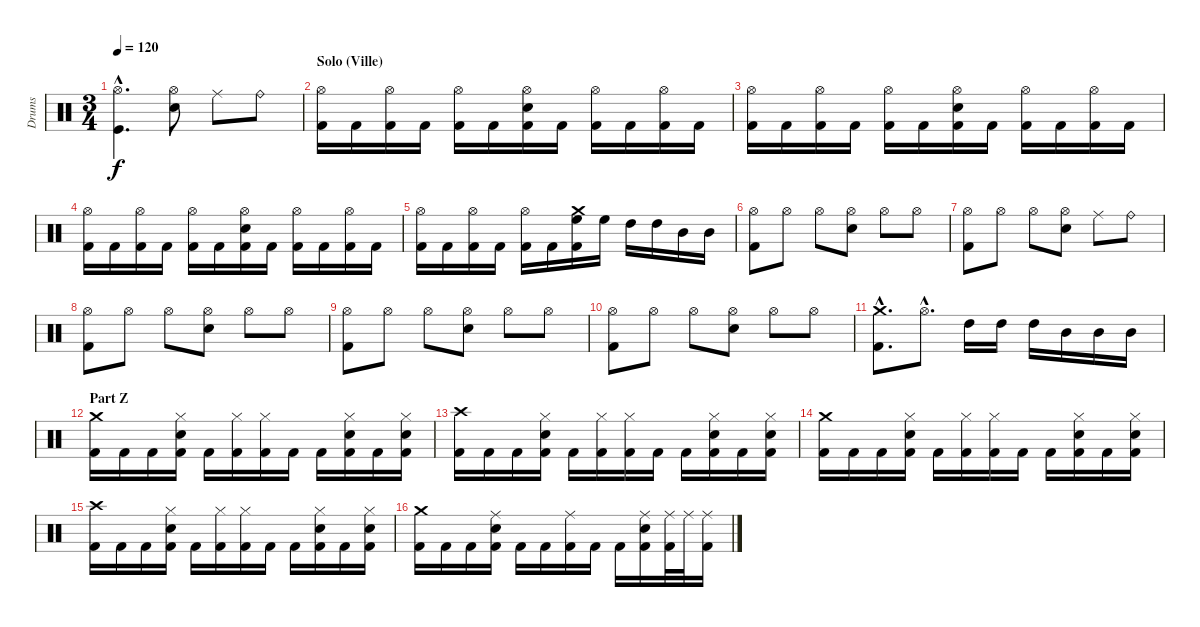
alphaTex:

\track ("Drums" "Drums") {instrument percussion}
\staff {score}
\articulation defaults
\ts (3 4)
\tempo 120
\clef neutral
\ks c
("Hi-Hat (open)"{hac} "Kick (hit)"{hac}).4{d dy f} ("Hi-Hat (open)" "Electric Snare (hit)").8 "Ride (middle)".8 "Ride (bell)".8 |
\section ("" "Solo (Ville)")
("Hi-Hat (open)" "Kick (hit) 2").16 "Kick (hit) 2".16 ("Hi-Hat (open)" "Kick (hit) 2").16 "Kick (hit) 2".16 ("Hi-Hat (open)" "Kick (hit) 2").16 "Kick (hit) 2".16 ("Hi-Hat (open)" "Electric Snare (hit)" "Kick (hit) 2").16 "Kick (hit) 2".16 ("Hi-Hat (open)" "Kick (hit) 2").16 "Kick (hit) 2".16 ("Hi-Hat (open)" "Kick (hit) 2").16 "Kick (hit) 2".16 |
("Hi-Hat (open)" "Kick (hit) 2").16 "Kick (hit) 2".16 ("Hi-Hat (open)" "Kick (hit) 2").16 "Kick (hit) 2".16 ("Hi-Hat (open)" "Kick (hit) 2").16 "Kick (hit) 2".16 ("Hi-Hat (open)" "Electric Snare (hit)" "Kick (hit) 2").16 "Kick (hit) 2".16 ("Hi-Hat (open)" "Kick (hit) 2").16 "Kick (hit) 2".16 ("Hi-Hat (open)" "Kick (hit) 2").16 "Kick (hit) 2".16 |
("Hi-Hat (open)" "Kick (hit) 2").16 "Kick (hit) 2".16 ("Hi-Hat (open)" "Kick (hit) 2").16 "Kick (hit) 2".16 ("Hi-Hat (open)" "Kick (hit) 2").16 "Kick (hit) 2".16 ("Hi-Hat (open)" "Electric Snare (hit)" "Kick (hit) 2").16 "Kick (hit) 2".16 ("Hi-Hat (open)" "Kick (hit) 2").16 "Kick (hit) 2".16 ("Hi-Hat (open)" "Kick (hit) 2").16 "Kick (hit) 2".16 |
("Hi-Hat (open)" "Kick (hit) 2").16 "Kick (hit) 2".16 ("Hi-Hat (open)" "Kick (hit) 2").16 "Kick (hit) 2".16 ("Hi-Hat (open)" "Kick (hit) 2").16 "Kick (hit) 2".16 ("Crash medium (hit)" "High Floor Tom (hit)" "Kick (hit) 2").16 "High Floor Tom (hit)".16 "High Tom (hit)".16 "High Tom (hit)".16 "Mid Tom (hit)".16 "Mid Tom (hit)".16 |
("Hi-Hat (open)" "Kick (hit) 2").8 "Hi-Hat (open)".8 "Hi-Hat (open)".8 ("Hi-Hat (open)" "Electric Snare (hit)").8 "Hi-Hat (open)".8 "Hi-Hat (open)".8 |
("Hi-Hat (open)" "Kick (hit) 2").8 "Hi-Hat (open)".8 "Hi-Hat (open)".8 ("Hi-Hat (open)" "Electric Snare (hit)").8 "Ride (middle)".8 "Ride (bell)".8 |
("Hi-Hat (open)" "Kick (hit) 2").8 "Hi-Hat (open)".8 "Hi-Hat (open)".8 ("Hi-Hat (open)" "Electric Snare (hit)").8 "Hi-Hat (open)".8 "Hi-Hat (open)".8 |
("Hi-Hat (open)" "Kick (hit) 2").8 "Hi-Hat (open)".8 "Hi-Hat (open)".8 ("Hi-Hat (open)" "Electric Snare (hit)").8 "Hi-Hat (open)".8 "Hi-Hat (open)".8 |
("Hi-Hat (open)" "Kick (hit) 2").8 "Hi-Hat (open)".8 "Hi-Hat (open)".8 ("Hi-Hat (open)" "Electric Snare (hit)").8 "Hi-Hat (open)".8 "Hi-Hat (open)".8 |
("Crash medium (hit)"{hac} "Kick (hit) 2"{hac}).8{d} "Hi-Hat (open)"{hac}.8{d} "High Tom (hit)".16 "High Tom (hit)".16 "High Tom (hit)".16 "Mid Tom (hit)".16 "Mid Tom (hit)".16 "Mid Tom (hit)".16 |
\section ("" "Part Z")
("Crash medium (hit)" "Kick (hit) 2").16 "Kick (hit) 2".16 "Kick (hit) 2".16 ("Hi-Hat (closed)" "Electric Snare (hit)" "Kick (hit) 2").16 "Kick (hit) 2".16 ("Hi-Hat (closed)" "Kick (hit) 2").16 ("Hi-Hat (closed)" "Kick (hit) 2").16 "Kick (hit) 2".16 "Kick (hit) 2".16 ("Hi-Hat (closed)" "Electric Snare (hit)" "Kick (hit) 2").16 "Kick (hit) 2".16 ("Hi-Hat (closed)" "Electric Snare (hit)" "Kick (hit) 2").16 |
("Crash high (hit)" "Kick (hit) 2").16 "Kick (hit) 2".16 "Kick (hit) 2".16 ("Hi-Hat (closed)" "Electric Snare (hit)" "Kick (hit) 2").16 "Kick (hit) 2".16 ("Hi-Hat (closed)" "Kick (hit) 2").16 ("Hi-Hat (closed)" "Kick (hit) 2").16 "Kick (hit) 2".16 "Kick (hit) 2".16 ("Hi-Hat (closed)" "Electric Snare (hit)" "Kick (hit) 2").16 "Kick (hit) 2".16 ("Hi-Hat (closed)" "Electric Snare (hit)" "Kick (hit) 2").16 |
("Crash medium (hit)" "Kick (hit) 2").16 "Kick (hit) 2".16 "Kick (hit) 2".16 ("Hi-Hat (closed)" "Electric Snare (hit)" "Kick (hit) 2").16 "Kick (hit) 2".16 ("Hi-Hat (closed)" "Kick (hit) 2").16 ("Hi-Hat (closed)" "Kick (hit) 2").16 "Kick (hit) 2".16 "Kick (hit) 2".16 ("Hi-Hat (closed)" "Electric Snare (hit)" "Kick (hit) 2").16 "Kick (hit) 2".16 ("Hi-Hat (closed)" "Electric Snare (hit)" "Kick (hit) 2").16 |
("Crash high (hit)" "Kick (hit) 2").16 "Kick (hit) 2".16 "Kick (hit) 2".16 ("Hi-Hat (closed)" "Electric Snare (hit)" "Kick (hit) 2").16 "Kick (hit) 2".16 ("Hi-Hat (closed)" "Kick (hit) 2").16 ("Hi-Hat (closed)" "Kick (hit) 2").16 "Kick (hit) 2".16 "Kick (hit) 2".16 ("Hi-Hat (closed)" "Electric Snare (hit)" "Kick (hit) 2").16 "Kick (hit) 2".16 ("Hi-Hat (closed)" "Electric Snare (hit)" "Kick (hit) 2").16 |
("Crash medium (hit)" "Kick (hit) 2").16 "Kick (hit) 2".16 "Kick (hit) 2".16 ("Ride (middle)" "Electric Snare (hit)" "Kick (hit) 2").16 "Kick (hit) 2".16 "Kick (hit) 2".16 ("Ride (middle)" "Kick (hit) 2").16 "Kick (hit) 2".16 "Kick (hit) 2".16 ("Ride (middle)" "Electric Snare (hit)" "Kick (hit) 2").16 ("Ride (middle)" "Kick (hit) 2").32 "Ride (middle)".32 ("Ride (middle)" "Kick (hit) 2").16
